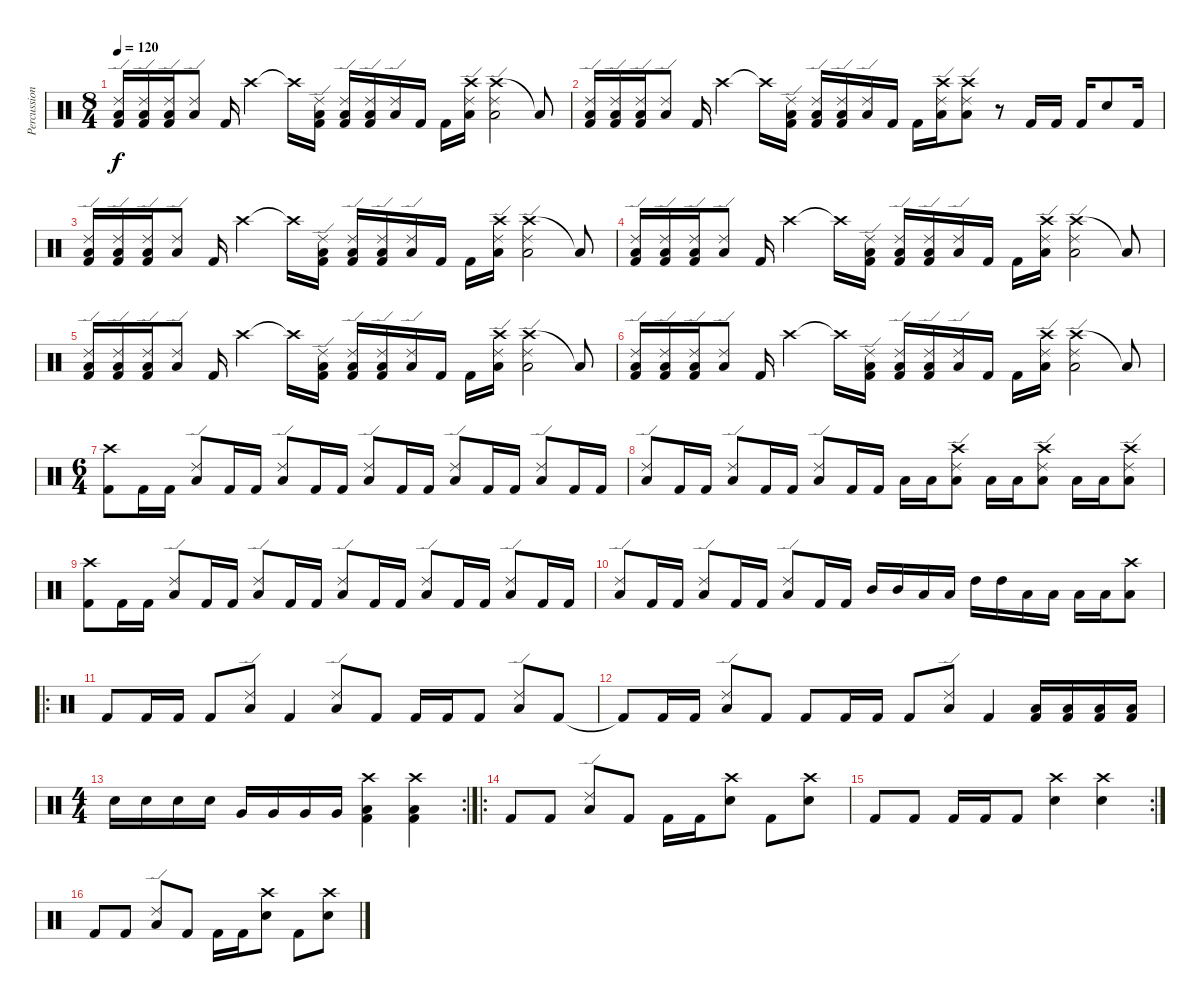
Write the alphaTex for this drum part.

\track ("Percussions" "Percussion") {instrument percussion}
\staff {score}
\articulation defaults
\ts (8 4)
\tempo 120
\clef neutral
\ks c
("Ride (edge) 2" "Low Floor Tom (hit)" "Kick (hit) 2").16{dy f} ("Ride (edge) 2" "Low Floor Tom (hit)" "Kick (hit) 2").16 ("Ride (edge) 2" "Low Floor Tom (hit)" "Kick (hit) 2").16 ("Ride (edge) 2" "Low Tom (hit)").8 "Kick (hit) 2".16 "Crash high (hit)".2 "Crash high (hit)"{t}.16 ("Ride (edge) 2" "Low Floor Tom (hit)" "Kick (hit) 2").16 ("Ride (edge) 2" "Low Floor Tom (hit)" "Kick (hit) 2").16 ("Ride (edge) 2" "Low Floor Tom (hit)" "Kick (hit) 2").16 ("Ride (edge) 2" "Low Tom (hit)").16 "Kick (hit) 2".16 "Kick (hit) 2".16 ("Crash high (hit)" "Ride (edge) 2" "Low Tom (hit)").16 ("Crash high (hit)" "Ride (edge) 2" "Low Tom (hit)").2 "Low Tom (hit)"{t}.8 |
("Ride (edge) 2" "Low Floor Tom (hit)" "Kick (hit) 2").16 ("Ride (edge) 2" "Low Floor Tom (hit)" "Kick (hit) 2").16 ("Ride (edge) 2" "Low Floor Tom (hit)" "Kick (hit) 2").16 ("Ride (edge) 2" "Low Tom (hit)").8 "Kick (hit) 2".16 "Crash high (hit)".2 "Crash high (hit)"{t}.16 ("Ride (edge) 2" "Low Floor Tom (hit)" "Kick (hit) 2").16 ("Ride (edge) 2" "Low Floor Tom (hit)" "Kick (hit) 2").16 ("Ride (edge) 2" "Low Floor Tom (hit)" "Kick (hit) 2").16 ("Ride (edge) 2" "Low Tom (hit)").16 "Kick (hit) 2".16 "Kick (hit) 2".16 ("Crash high (hit)" "Ride (edge) 2" "Low Tom (hit)").16 ("Crash high (hit)" "Ride (edge) 2" "Low Tom (hit)").8 r.8 "Kick (hit) 2".16 "Kick (hit) 2".16 "Kick (hit) 2".16 "Electric Snare (hit)".8 "Kick (hit) 2".16 |
("Ride (edge) 2" "Low Floor Tom (hit)" "Kick (hit) 2").16 ("Ride (edge) 2" "Low Floor Tom (hit)" "Kick (hit) 2").16 ("Ride (edge) 2" "Low Floor Tom (hit)" "Kick (hit) 2").16 ("Ride (edge) 2" "Low Tom (hit)").8 "Kick (hit) 2".16 "Crash high (hit)".2 "Crash high (hit)"{t}.16 ("Ride (edge) 2" "Low Floor Tom (hit)" "Kick (hit) 2").16 ("Ride (edge) 2" "Low Floor Tom (hit)" "Kick (hit) 2").16 ("Ride (edge) 2" "Low Floor Tom (hit)" "Kick (hit) 2").16 ("Ride (edge) 2" "Low Tom (hit)").16 "Kick (hit) 2".16 "Kick (hit) 2".16 ("Crash high (hit)" "Ride (edge) 2" "Low Tom (hit)").16 ("Crash high (hit)" "Ride (edge) 2" "Low Tom (hit)").2 "Low Tom (hit)"{t}.8 |
("Ride (edge) 2" "Low Floor Tom (hit)" "Kick (hit) 2").16 ("Ride (edge) 2" "Low Floor Tom (hit)" "Kick (hit) 2").16 ("Ride (edge) 2" "Low Floor Tom (hit)" "Kick (hit) 2").16 ("Ride (edge) 2" "Low Tom (hit)").8 "Kick (hit) 2".16 "Crash high (hit)".2 "Crash high (hit)"{t}.16 ("Ride (edge) 2" "Low Floor Tom (hit)" "Kick (hit) 2").16 ("Ride (edge) 2" "Low Floor Tom (hit)" "Kick (hit) 2").16 ("Ride (edge) 2" "Low Floor Tom (hit)" "Kick (hit) 2").16 ("Ride (edge) 2" "Low Tom (hit)").16 "Kick (hit) 2".16 "Kick (hit) 2".16 ("Crash high (hit)" "Ride (edge) 2" "Low Tom (hit)").16 ("Crash high (hit)" "Ride (edge) 2" "Low Tom (hit)").2 "Low Tom (hit)"{t}.8 |
("Ride (edge) 2" "Low Floor Tom (hit)" "Kick (hit) 2").16 ("Ride (edge) 2" "Low Floor Tom (hit)" "Kick (hit) 2").16 ("Ride (edge) 2" "Low Floor Tom (hit)" "Kick (hit) 2").16 ("Ride (edge) 2" "Low Tom (hit)").8 "Kick (hit) 2".16 "Crash high (hit)".2 "Crash high (hit)"{t}.16 ("Ride (edge) 2" "Low Floor Tom (hit)" "Kick (hit) 2").16 ("Ride (edge) 2" "Low Floor Tom (hit)" "Kick (hit) 2").16 ("Ride (edge) 2" "Low Floor Tom (hit)" "Kick (hit) 2").16 ("Ride (edge) 2" "Low Tom (hit)").16 "Kick (hit) 2".16 "Kick (hit) 2".16 ("Crash high (hit)" "Ride (edge) 2" "Low Tom (hit)").16 ("Crash high (hit)" "Ride (edge) 2" "Low Tom (hit)").2 "Low Tom (hit)"{t}.8 |
("Ride (edge) 2" "Low Floor Tom (hit)" "Kick (hit) 2").16 ("Ride (edge) 2" "Low Floor Tom (hit)" "Kick (hit) 2").16 ("Ride (edge) 2" "Low Floor Tom (hit)" "Kick (hit) 2").16 ("Ride (edge) 2" "Low Tom (hit)").8 "Kick (hit) 2".16 "Crash high (hit)".2 "Crash high (hit)"{t}.16 ("Ride (edge) 2" "Low Floor Tom (hit)" "Kick (hit) 2").16 ("Ride (edge) 2" "Low Floor Tom (hit)" "Kick (hit) 2").16 ("Ride (edge) 2" "Low Floor Tom (hit)" "Kick (hit) 2").16 ("Ride (edge) 2" "Low Tom (hit)").16 "Kick (hit) 2".16 "Kick (hit) 2".16 ("Crash high (hit)" "Ride (edge) 2" "Low Tom (hit)").16 ("Crash high (hit)" "Ride (edge) 2" "Low Tom (hit)").2 "Low Tom (hit)"{t}.8 |
\ts (6 4)
("Crash high (hit)" "Kick (hit) 2").8 "Kick (hit) 2".16 "Kick (hit) 2".16 ("Ride (edge) 2" "Low Tom (hit)").8 "Kick (hit) 2".16 "Kick (hit) 2".16 ("Ride (edge) 2" "Low Tom (hit)").8 "Kick (hit) 2".16 "Kick (hit) 2".16 ("Ride (edge) 2" "Low Tom (hit)").8 "Kick (hit) 2".16 "Kick (hit) 2".16 ("Ride (edge) 2" "Low Tom (hit)").8 "Kick (hit) 2".16 "Kick (hit) 2".16 ("Ride (edge) 2" "Low Tom (hit)").8 "Kick (hit) 2".16 "Kick (hit) 2".16 |
("Ride (edge) 2" "Low Tom (hit)").8 "Kick (hit) 2".16 "Kick (hit) 2".16 ("Ride (edge) 2" "Low Tom (hit)").8 "Kick (hit) 2".16 "Kick (hit) 2".16 ("Ride (edge) 2" "Low Tom (hit)").8 "Kick (hit) 2".16 "Kick (hit) 2".16 "Low Floor Tom (hit)".16 "Low Floor Tom (hit)".16 ("Crash high (hit)" "Ride (edge) 2" "Low Tom (hit)").8 "Low Floor Tom (hit)".16 "Low Floor Tom (hit)".16 ("Crash high (hit)" "Ride (edge) 2" "Low Tom (hit)").8 "Low Floor Tom (hit)".16 "Low Floor Tom (hit)".16 ("Crash high (hit)" "Ride (edge) 2" "Low Tom (hit)").8 |
("Crash high (hit)" "Kick (hit) 2").8 "Kick (hit) 2".16 "Kick (hit) 2".16 ("Ride (edge) 2" "Low Tom (hit)").8 "Kick (hit) 2".16 "Kick (hit) 2".16 ("Ride (edge) 2" "Low Tom (hit)").8 "Kick (hit) 2".16 "Kick (hit) 2".16 ("Ride (edge) 2" "Low Tom (hit)").8 "Kick (hit) 2".16 "Kick (hit) 2".16 ("Ride (edge) 2" "Low Tom (hit)").8 "Kick (hit) 2".16 "Kick (hit) 2".16 ("Ride (edge) 2" "Low Tom (hit)").8 "Kick (hit) 2".16 "Kick (hit) 2".16 |
("Ride (edge) 2" "Low Tom (hit)").8 "Kick (hit) 2".16 "Kick (hit) 2".16 ("Ride (edge) 2" "Low Tom (hit)").8 "Kick (hit) 2".16 "Kick (hit) 2".16 ("Ride (edge) 2" "Low Tom (hit)").8 "Kick (hit) 2".16 "Kick (hit) 2".16 "Mid Tom (hit)".16 "Mid Tom (hit)".16 "Low Floor Tom (hit)".16 "Low Floor Tom (hit)".16 "High Tom (hit)".16 "High Tom (hit)".16 "Low Tom (hit)".16 "Low Tom (hit)".16 "Low Tom (hit)".16 "Low Tom (hit)".16 ("Crash high (hit)" "Low Tom (hit)").8 |
\ro "Kick (hit) 2".8 "Kick (hit) 2".16 "Kick (hit) 2".16 "Kick (hit) 2".8
("Ride (edge) 2" "Low Tom (hit)").8 "Kick (hit) 2".4 ("Ride (edge) 2" "Low Tom (hit)").8 "Kick (hit) 2".8 "Kick (hit) 2".16 "Kick (hit) 2".16 "Kick (hit) 2".8 ("Ride (edge) 2" "Low Tom (hit)").8 "Kick (hit) 2".8 |
"Kick (hit) 2"{t}.8 "Kick (hit) 2".16 "Kick (hit) 2".16 ("Ride (edge) 2" "Low Tom (hit)").8 "Kick (hit) 2".8 "Kick (hit) 2".8 "Kick (hit) 2".16 "Kick (hit) 2".16 "Kick (hit) 2".8 ("Ride (edge) 2" "Low Tom (hit)").8 "Kick (hit) 2".4 ("Low Floor Tom (hit)" "Kick (hit) 2").16 ("Low Floor Tom (hit)" "Kick (hit) 2").16 ("Low Floor Tom (hit)" "Kick (hit) 2").16 ("Low Floor Tom (hit)" "Kick (hit) 2").16 |
\rc 2
\ts (4 4)
"Electric Snare (hit)".16 "Electric Snare (hit)".16 "Electric Snare (hit)".16 "Electric Snare (hit)".16 "Very Low Tom (hit)".16 "Very Low Tom (hit)".16 "Very Low Tom (hit)".16 "Very Low Tom (hit)".16 ("Crash high (hit)" "Kick (hit) 2" "Low Tom (hit)").4 ("Crash high (hit)" "Kick (hit) 2" "Low Tom (hit)").4 |
\ro "Kick (hit) 2".8 "Kick (hit) 2".8
("Ride (edge) 2" "Low Tom (hit)").8 "Kick (hit) 2".8 "Kick (hit) 2".16 "Kick (hit) 2".16 ("Crash high (hit)" "Electric Snare (hit)").8 "Kick (hit) 2".8 ("Crash high (hit)" "Electric Snare (hit)").8 |
\rc 2 "Kick (hit) 2".8 "Kick (hit) 2".8 "Kick (hit) 2".16 "Kick (hit) 2".16 "Kick (hit) 2".8
("Crash high (hit)" "Electric Snare (hit)").4 ("Crash high (hit)" "Electric Snare (hit)").4 |
"Kick (hit) 2".8 "Kick (hit) 2".8 ("Ride (edge) 2" "Low Tom (hit)").8 "Kick (hit) 2".8 "Kick (hit) 2".16 "Kick (hit) 2".16 ("Crash high (hit)" "Electric Snare (hit)").8 "Kick (hit) 2".8 ("Crash high (hit)" "Electric Snare (hit)").8
